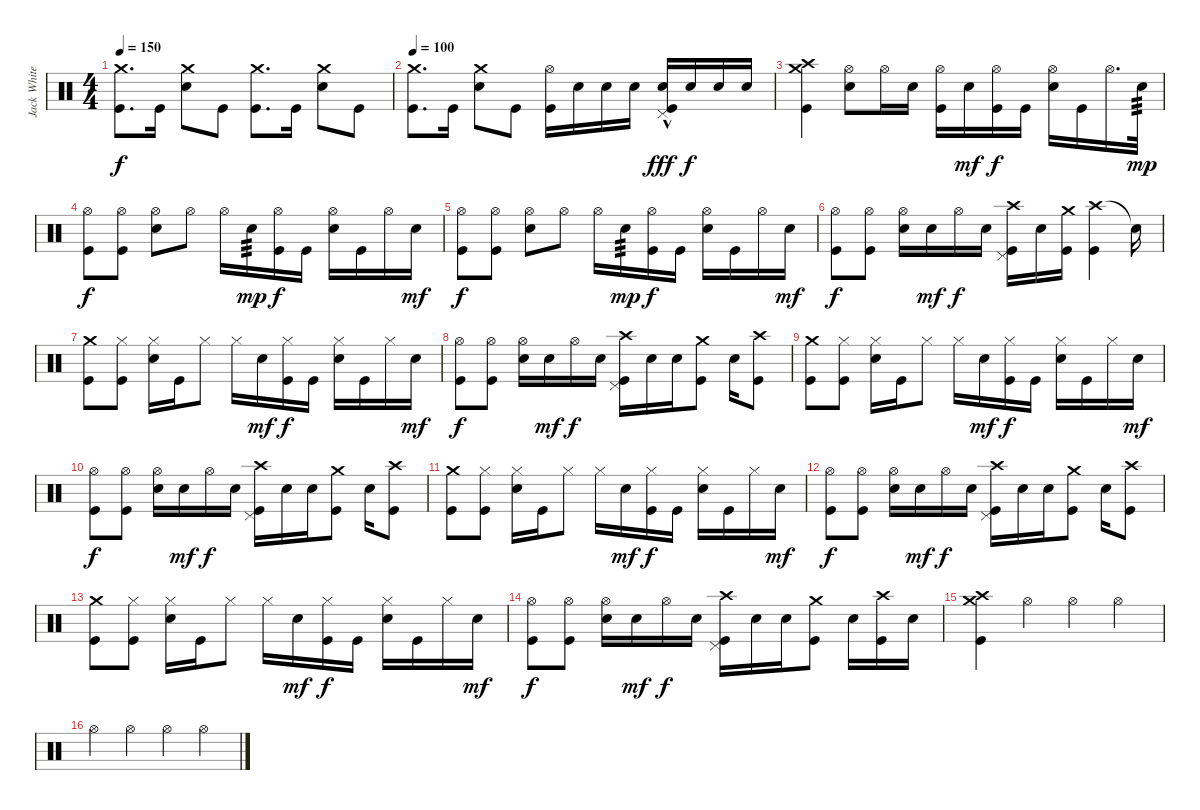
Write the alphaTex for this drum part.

\track ("Jack White" "Jack White") {instrument percussion}
\staff
\articulation defaults
\ts (4 4)
\tempo 150
\clef neutral
\ks c
("Crash medium (hit)" "Kick (hit)").8{d dy f} "Kick (hit)".16 ("Crash medium (hit)" "Snare (hit) 2").8 "Kick (hit)".8 ("Crash medium (hit)" "Kick (hit)").8{d} "Kick (hit)".16 ("Crash medium (hit)" "Snare (hit) 2").8 "Kick (hit)".8 |
\tempo 100
("Crash medium (hit)" "Kick (hit)").8{d} "Kick (hit)".16 ("Crash medium (hit)" "Snare (hit) 2").8 "Kick (hit)".8 ("Hi-Hat (open)" "Kick (hit)").16 "Snare (hit) 2".16 "Snare (hit) 2".16 "Snare (hit) 2".16 ("Pedal Hi-Hat (hit)" "Snare (hit) 2"{hac} "Kick (hit)").16{dy fff} "Snare (hit) 2".16{dy f} "Snare (hit) 2".16 "Snare (hit) 2".16 |
("Crash medium (hit)" "Crash high (hit)" "Kick (hit)").4 ("Hi-Hat (open)" "Snare (hit) 2").8 "Hi-Hat (open)".16 "Snare (hit) 2".16 ("Hi-Hat (open)" "Kick (hit)").16 "Snare (hit) 2".16{dy mf} ("Hi-Hat (open)" "Kick (hit)").16{dy f} "Kick (hit)".16 ("Hi-Hat (open)" "Snare (hit) 2").16 "Kick (hit)".16 "Hi-Hat (open)".16{d} "Snare (hit) 2".32{tp 3 dy mp} |
("Hi-Hat (open)" "Kick (hit)").8{dy f} ("Hi-Hat (open)" "Kick (hit)").8 ("Hi-Hat (open)" "Snare (hit) 2").8 "Hi-Hat (open)".8 "Hi-Hat (open)".16 "Snare (hit) 2".16{tp 3 dy mp} ("Hi-Hat (open)" "Kick (hit)").16{dy f} "Kick (hit)".16 ("Hi-Hat (open)" "Snare (hit) 2").16 "Kick (hit)".16 "Hi-Hat (open)".16 "Snare (hit) 2".16{dy mf} |
("Hi-Hat (open)" "Kick (hit)").8{dy f} ("Hi-Hat (open)" "Kick (hit)").8 ("Hi-Hat (open)" "Snare (hit) 2").8 "Hi-Hat (open)".8 "Hi-Hat (open)".16 "Snare (hit) 2".16{tp 3 dy mp} ("Hi-Hat (open)" "Kick (hit)").16{dy f} "Kick (hit)".16 ("Hi-Hat (open)" "Snare (hit) 2").16 "Kick (hit)".16 "Hi-Hat (open)".16 "Snare (hit) 2".16{dy mf} |
("Hi-Hat (open)" "Kick (hit)").8{dy f} ("Hi-Hat (open)" "Kick (hit)").8 ("Hi-Hat (open)" "Snare (hit) 2").16 "Snare (hit) 2".16{dy mf} "Hi-Hat (open)".16{dy f} "Snare (hit) 2".16 ("Crash high (hit)" "Pedal Hi-Hat (hit)" "Kick (hit)").16 "Snare (hit) 2".16 ("Crash medium (hit)" "Kick (hit)").16 ("Crash high (hit)" "Kick (hit)").4 "Snare (hit)"{t}.16 |
("Crash medium (hit)" "Kick (hit)").8 ("Hi-Hat (closed)" "Kick (hit)").8 ("Hi-Hat (closed)" "Snare (hit) 2").16 "Kick (hit)".16 "Hi-Hat (closed)".8 "Hi-Hat (closed)".16 "Snare (hit) 2".16{dy mf} ("Hi-Hat (closed)" "Kick (hit)").16{dy f} "Kick (hit)".16 ("Hi-Hat (closed)" "Snare (hit) 2").16 "Kick (hit)".16 "Hi-Hat (closed)".16 "Snare (hit) 2".16{dy mf} |
("Hi-Hat (open)" "Kick (hit)").8{dy f} ("Hi-Hat (open)" "Kick (hit)").8 ("Hi-Hat (open)" "Snare (hit) 2").16 "Snare (hit) 2".16{dy mf} "Hi-Hat (open)".16{dy f} "Snare (hit) 2".16 ("Crash high (hit)" "Pedal Hi-Hat (hit)" "Kick (hit)").16 "Snare (hit) 2".16 "Snare (hit) 2".16 ("Crash medium (hit)" "Kick (hit)").8 "Snare (hit) 2".16 ("Crash high (hit)" "Kick (hit)").8 |
("Crash medium (hit)" "Kick (hit)").8 ("Hi-Hat (closed)" "Kick (hit)").8 ("Hi-Hat (closed)" "Snare (hit) 2").16 "Kick (hit)".16 "Hi-Hat (closed)".8 "Hi-Hat (closed)".16 "Snare (hit) 2".16{dy mf} ("Hi-Hat (closed)" "Kick (hit)").16{dy f} "Kick (hit)".16 ("Hi-Hat (closed)" "Snare (hit) 2").16 "Kick (hit)".16 "Hi-Hat (closed)".16 "Snare (hit) 2".16{dy mf} |
("Hi-Hat (open)" "Kick (hit)").8{dy f} ("Hi-Hat (open)" "Kick (hit)").8 ("Hi-Hat (open)" "Snare (hit) 2").16 "Snare (hit) 2".16{dy mf} "Hi-Hat (open)".16{dy f} "Snare (hit) 2".16 ("Crash high (hit)" "Pedal Hi-Hat (hit)" "Kick (hit)").16 "Snare (hit) 2".16 "Snare (hit) 2".16 ("Crash medium (hit)" "Kick (hit)").8 "Snare (hit) 2".16 ("Crash high (hit)" "Kick (hit)").8 |
("Crash medium (hit)" "Kick (hit)").8 ("Hi-Hat (closed)" "Kick (hit)").8 ("Hi-Hat (closed)" "Snare (hit) 2").16 "Kick (hit)".16 "Hi-Hat (closed)".8 "Hi-Hat (closed)".16 "Snare (hit) 2".16{dy mf} ("Hi-Hat (closed)" "Kick (hit)").16{dy f} "Kick (hit)".16 ("Hi-Hat (closed)" "Snare (hit) 2").16 "Kick (hit)".16 "Hi-Hat (closed)".16 "Snare (hit) 2".16{dy mf} |
("Hi-Hat (open)" "Kick (hit)").8{dy f} ("Hi-Hat (open)" "Kick (hit)").8 ("Hi-Hat (open)" "Snare (hit) 2").16 "Snare (hit) 2".16{dy mf} "Hi-Hat (open)".16{dy f} "Snare (hit) 2".16 ("Crash high (hit)" "Pedal Hi-Hat (hit)" "Kick (hit)").16 "Snare (hit) 2".16 "Snare (hit) 2".16 ("Crash medium (hit)" "Kick (hit)").8 "Snare (hit) 2".16 ("Crash high (hit)" "Kick (hit)").8 |
("Crash medium (hit)" "Kick (hit)").8 ("Hi-Hat (closed)" "Kick (hit)").8 ("Hi-Hat (closed)" "Snare (hit) 2").16 "Kick (hit)".16 "Hi-Hat (closed)".8 "Hi-Hat (closed)".16 "Snare (hit) 2".16{dy mf} ("Hi-Hat (closed)" "Kick (hit)").16{dy f} "Kick (hit)".16 ("Hi-Hat (closed)" "Snare (hit) 2").16 "Kick (hit)".16 "Hi-Hat (closed)".16 "Snare (hit) 2".16{dy mf} |
("Hi-Hat (open)" "Kick (hit)").8{dy f} ("Hi-Hat (open)" "Kick (hit)").8 ("Hi-Hat (open)" "Snare (hit) 2").16 "Snare (hit) 2".16{dy mf} "Hi-Hat (open)".16{dy f} "Snare (hit) 2".16 ("Crash high (hit)" "Pedal Hi-Hat (hit)" "Kick (hit)").16 "Snare (hit) 2".16 "Snare (hit) 2".16 ("Crash medium (hit)" "Kick (hit)").8 "Snare (hit) 2".16 ("Crash high (hit)" "Kick (hit)").16 "Snare (hit) 2".16 |
("Crash medium (hit)" "Crash high (hit)" "Kick (hit)").4 "Hi-Hat (open)".4 "Hi-Hat (open)".4 "Hi-Hat (open)".4 |
"Hi-Hat (open)".4 "Hi-Hat (open)".4 "Hi-Hat (open)".4 "Hi-Hat (open)".4
